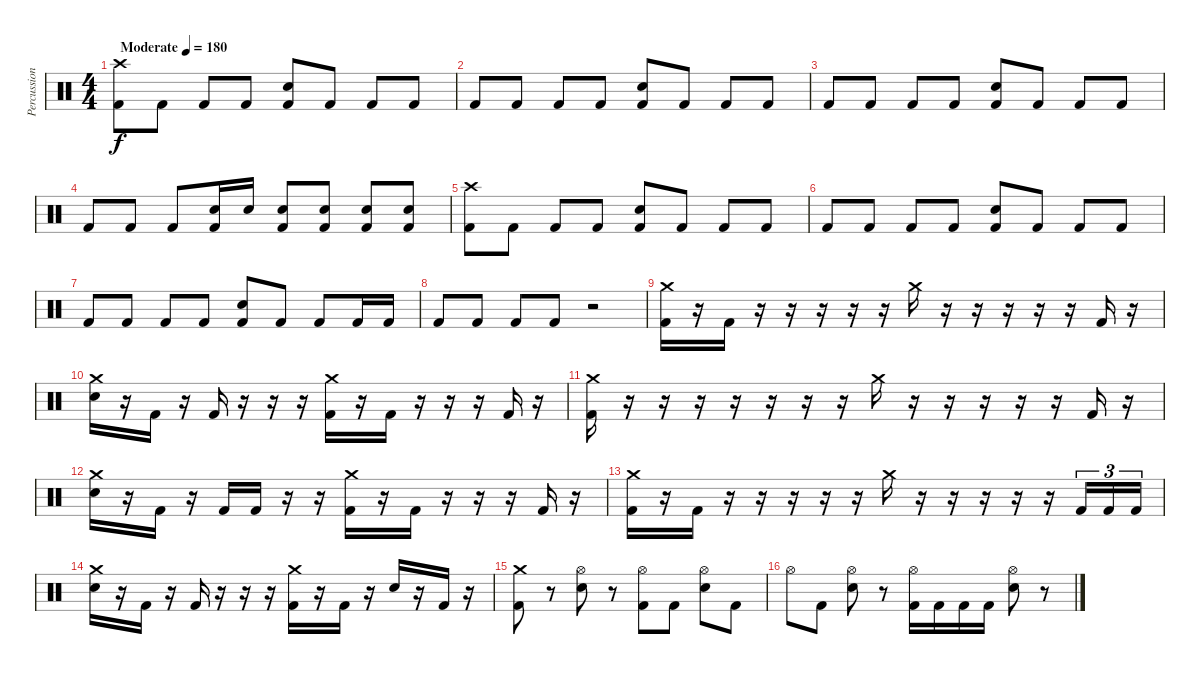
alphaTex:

\track ("Percussion" "Percussion") {instrument percussion}
\staff {score}
\articulation defaults
\ts (4 4)
\tempo (180 "Moderate")
\clef neutral
\ks c
("Crash high (hit)" "Kick (hit) 2").8{dy f volume 10} "Kick (hit) 2".8 "Kick (hit) 2".8 "Kick (hit) 2".8 ("Electric Snare (hit)" "Kick (hit) 2").8 "Kick (hit) 2".8 "Kick (hit) 2".8 "Kick (hit) 2".8 |
"Kick (hit) 2".8 "Kick (hit) 2".8 "Kick (hit) 2".8 "Kick (hit) 2".8 ("Electric Snare (hit)" "Kick (hit) 2").8 "Kick (hit) 2".8 "Kick (hit) 2".8 "Kick (hit) 2".8 |
"Kick (hit) 2".8 "Kick (hit) 2".8 "Kick (hit) 2".8 "Kick (hit) 2".8 ("Electric Snare (hit)" "Kick (hit) 2").8 "Kick (hit) 2".8 "Kick (hit) 2".8 "Kick (hit) 2".8 |
"Kick (hit) 2".8 "Kick (hit) 2".8 "Kick (hit) 2".8 ("Electric Snare (hit)" "Kick (hit) 2").16 "Electric Snare (hit)".16 ("Electric Snare (hit)" "Kick (hit) 2").8 ("Electric Snare (hit)" "Kick (hit) 2").8 ("Electric Snare (hit)" "Kick (hit) 2").8 ("Electric Snare (hit)" "Kick (hit) 2").8 |
("Crash high (hit)" "Kick (hit) 2").8 "Kick (hit) 2".8 "Kick (hit) 2".8 "Kick (hit) 2".8 ("Electric Snare (hit)" "Kick (hit) 2").8 "Kick (hit) 2".8 "Kick (hit) 2".8 "Kick (hit) 2".8 |
"Kick (hit) 2".8 "Kick (hit) 2".8 "Kick (hit) 2".8 "Kick (hit) 2".8 ("Electric Snare (hit)" "Kick (hit) 2").8 "Kick (hit) 2".8 "Kick (hit) 2".8 "Kick (hit) 2".8 |
"Kick (hit) 2".8 "Kick (hit) 2".8 "Kick (hit) 2".8 "Kick (hit) 2".8 ("Electric Snare (hit)" "Kick (hit) 2").8 "Kick (hit) 2".8 "Kick (hit) 2".8 "Kick (hit) 2".16{volume 13} "Kick (hit) 2".16 |
"Kick (hit) 2".8 "Kick (hit) 2".8 "Kick (hit) 2".8 "Kick (hit) 2".8 r.2 |
("Crash medium (hit)" "Kick (hit) 2").16 r.16 "Kick (hit) 2".16 r.16 r.16 r.16 r.16 r.16 "Crash medium (hit)".16 r.16 r.16 r.16 r.16 r.16 "Kick (hit) 2".16 r.16 |
("Crash medium (hit)" "Electric Snare (hit)").16 r.16 "Kick (hit) 2".16 r.16 "Kick (hit) 2".16 r.16 r.16 r.16 ("Crash medium (hit)" "Kick (hit) 2").16 r.16 "Kick (hit) 2".16 r.16 r.16 r.16 "Kick (hit) 2".16 r.16 |
("Crash medium (hit)" "Kick (hit) 2").16 r.16 r.16 r.16 r.16 r.16 r.16 r.16 "Crash medium (hit)".16 r.16 r.16 r.16 r.16 r.16 "Kick (hit) 2".16 r.16 |
("Crash medium (hit)" "Electric Snare (hit)").16 r.16 "Kick (hit) 2".16 r.16 "Kick (hit) 2".16 "Kick (hit) 2".16 r.16 r.16 ("Crash medium (hit)" "Kick (hit) 2").16 r.16 "Kick (hit) 2".16 r.16 r.16 r.16 "Kick (hit) 2".16 r.16 |
("Crash medium (hit)" "Kick (hit) 2").16 r.16 "Kick (hit) 2".16 r.16 r.16 r.16 r.16 r.16 "Crash medium (hit)".16 r.16 r.16 r.16 r.16 r.16 "Kick (hit) 2".16{tu (3 2)} "Kick (hit) 2".16{tu (3 2)} "Kick (hit) 2".16{tu (3 2)} |
("Crash medium (hit)" "Electric Snare (hit)").16 r.16 "Kick (hit) 2".16 r.16 "Kick (hit) 2".16 r.16 r.16 r.16 ("Crash medium (hit)" "Kick (hit) 2").16 r.16 "Kick (hit) 2".16 r.16 "Electric Snare (hit)".16 r.16 "Kick (hit) 2".16 r.16 |
("Crash medium (hit)" "Kick (hit) 2").8 r.8 ("Hi-Hat (open)" "Electric Snare (hit)").8 r.8 ("Hi-Hat (open)" "Kick (hit) 2").8 "Kick (hit) 2".8 ("Hi-Hat (open)" "Electric Snare (hit)").8 "Kick (hit) 2".8 |
"Hi-Hat (open)".8 "Kick (hit) 2".8 ("Hi-Hat (open)" "Electric Snare (hit)").8 r.8 ("Hi-Hat (open)" "Kick (hit) 2").16 "Kick (hit) 2".16 "Kick (hit) 2".16 "Kick (hit) 2".16 ("Hi-Hat (open)" "Electric Snare (hit)").8 r.8
